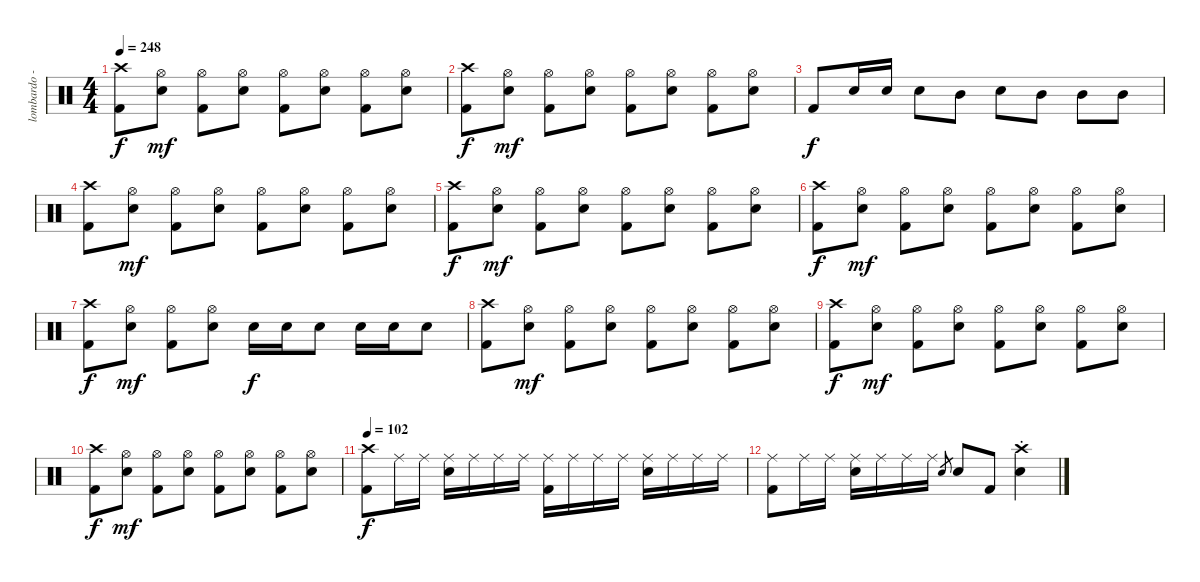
\track ("lombardo - drums" "lombardo -") {instrument percussion}
\staff {score}
\articulation defaults
\ts (4 4)
\tempo 248
\clef neutral
\ks c
("Crash high (hit)" "Kick (hit) 2").8{dy f} ("Hi-Hat (open)" "Snare (hit) 2").8{dy mf} ("Hi-Hat (open)" "Kick (hit) 2").8 ("Hi-Hat (open)" "Snare (hit) 2").8 ("Hi-Hat (open)" "Kick (hit) 2").8 ("Hi-Hat (open)" "Snare (hit) 2").8 ("Hi-Hat (open)" "Kick (hit) 2").8 ("Hi-Hat (open)" "Snare (hit) 2").8 |
("Crash high (hit)" "Kick (hit) 2").8{dy f} ("Hi-Hat (open)" "Snare (hit) 2").8{dy mf} ("Hi-Hat (open)" "Kick (hit) 2").8 ("Hi-Hat (open)" "Snare (hit) 2").8 ("Hi-Hat (open)" "Kick (hit) 2").8 ("Hi-Hat (open)" "Snare (hit) 2").8 ("Hi-Hat (open)" "Kick (hit) 2").8 ("Hi-Hat (open)" "Snare (hit) 2").8 |
"Kick (hit) 2".8{dy f} "Snare (hit) 2".16 "Snare (hit) 2".16 "Snare (hit) 2".8 "Mid Tom (hit)".8 "Snare (hit) 2".8 "Mid Tom (hit)".8 "Mid Tom (hit)".8 "Mid Tom (hit)".8 |
("Crash high (hit)" "Kick (hit) 2").8 ("Hi-Hat (open)" "Snare (hit) 2").8{dy mf} ("Hi-Hat (open)" "Kick (hit) 2").8 ("Hi-Hat (open)" "Snare (hit) 2").8 ("Hi-Hat (open)" "Kick (hit) 2").8 ("Hi-Hat (open)" "Snare (hit) 2").8 ("Hi-Hat (open)" "Kick (hit) 2").8 ("Hi-Hat (open)" "Snare (hit) 2").8 |
("Crash high (hit)" "Kick (hit) 2").8{dy f} ("Hi-Hat (open)" "Snare (hit) 2").8{dy mf} ("Hi-Hat (open)" "Kick (hit) 2").8 ("Hi-Hat (open)" "Snare (hit) 2").8 ("Hi-Hat (open)" "Kick (hit) 2").8 ("Hi-Hat (open)" "Snare (hit) 2").8 ("Hi-Hat (open)" "Kick (hit) 2").8 ("Hi-Hat (open)" "Snare (hit) 2").8 |
("Crash high (hit)" "Kick (hit) 2").8{dy f} ("Hi-Hat (open)" "Snare (hit) 2").8{dy mf} ("Hi-Hat (open)" "Kick (hit) 2").8 ("Hi-Hat (open)" "Snare (hit) 2").8 ("Hi-Hat (open)" "Kick (hit) 2").8 ("Hi-Hat (open)" "Snare (hit) 2").8 ("Hi-Hat (open)" "Kick (hit) 2").8 ("Hi-Hat (open)" "Snare (hit) 2").8 |
("Crash high (hit)" "Kick (hit) 2").8{dy f} ("Hi-Hat (open)" "Snare (hit) 2").8{dy mf} ("Hi-Hat (open)" "Kick (hit) 2").8 ("Hi-Hat (open)" "Snare (hit) 2").8 "Snare (hit) 2".16{dy f} "Snare (hit) 2".16 "Snare (hit) 2".8 "Snare (hit) 2".16 "Snare (hit) 2".16 "Snare (hit) 2".8 |
("Crash high (hit)" "Kick (hit) 2").8 ("Hi-Hat (open)" "Snare (hit) 2").8{dy mf} ("Hi-Hat (open)" "Kick (hit) 2").8 ("Hi-Hat (open)" "Snare (hit) 2").8 ("Hi-Hat (open)" "Kick (hit) 2").8 ("Hi-Hat (open)" "Snare (hit) 2").8 ("Hi-Hat (open)" "Kick (hit) 2").8 ("Hi-Hat (open)" "Snare (hit) 2").8 |
("Crash high (hit)" "Kick (hit) 2").8{dy f} ("Hi-Hat (open)" "Snare (hit) 2").8{dy mf} ("Hi-Hat (open)" "Kick (hit) 2").8 ("Hi-Hat (open)" "Snare (hit) 2").8 ("Hi-Hat (open)" "Kick (hit) 2").8 ("Hi-Hat (open)" "Snare (hit) 2").8 ("Hi-Hat (open)" "Kick (hit) 2").8 ("Hi-Hat (open)" "Snare (hit) 2").8 |
("Crash high (hit)" "Kick (hit) 2").8{dy f} ("Hi-Hat (open)" "Snare (hit) 2").8{dy mf} ("Hi-Hat (open)" "Kick (hit) 2").8 ("Hi-Hat (open)" "Snare (hit) 2").8 ("Hi-Hat (open)" "Kick (hit) 2").8 ("Hi-Hat (open)" "Snare (hit) 2").8 ("Hi-Hat (open)" "Kick (hit) 2").8 ("Hi-Hat (open)" "Snare (hit) 2").8 |
\tempo 102
("Crash high (hit)" "Kick (hit) 2").8{dy f} "Ride (middle)".16 "Ride (middle)".16 ("Ride (middle)" "Snare (hit) 2").16 "Ride (middle)".16 "Ride (middle)".16 "Ride (middle)".16 ("Ride (middle)" "Kick (hit) 2").16 "Ride (middle)".16 "Ride (middle)".16 "Ride (middle)".16 ("Ride (middle)" "Snare (hit) 2").16 "Ride (middle)".16 "Ride (middle)".16 "Ride (middle)".16 |
("Ride (middle)" "Kick (hit) 2").8 "Ride (middle)".16 "Ride (middle)".16 ("Ride (middle)" "Snare (hit) 2").16 "Ride (middle)".16 "Ride (middle)".16 "Ride (middle)".16 "Snare (hit) 2".8{gr} "Snare (hit) 2".8 "Kick (hit) 2".8 ("Crash high (hit)"{st} "Snare (hit) 2"{st}).4
